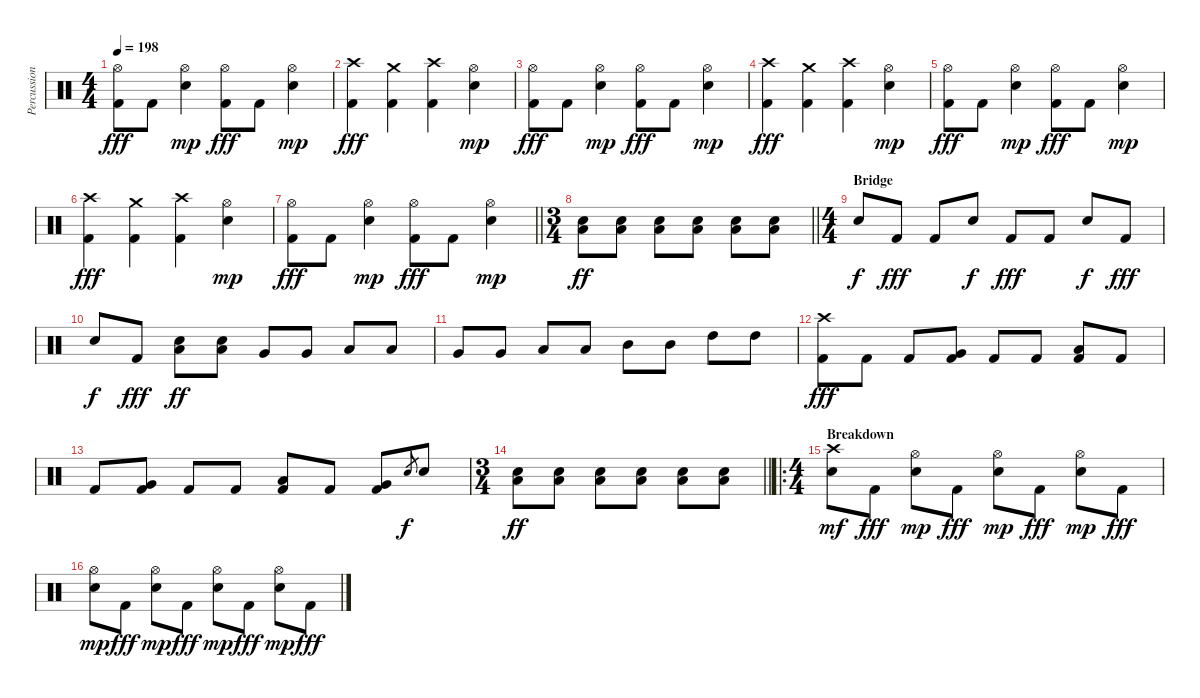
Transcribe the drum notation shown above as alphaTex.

\track ("Percussion" "Percussion") {instrument percussion}
\staff {score}
\articulation defaults
\ts (4 4)
\tempo 198
\clef neutral
\ks c
("Hi-Hat (open)" "Kick (hit) 2").8{dy fff} "Kick (hit) 2".8 ("Hi-Hat (open)" "Snare (hit) 2").4{dy mp} ("Hi-Hat (open)" "Kick (hit) 2").8{dy fff} "Kick (hit) 2".8 ("Hi-Hat (open)" "Snare (hit) 2").4{dy mp} |
("Crash high (hit)" "Kick (hit) 2").4{dy fff} ("Crash medium (hit)" "Kick (hit) 2").4 ("Crash high (hit)" "Kick (hit) 2").4 ("Hi-Hat (open)" "Snare (hit) 2").4{dy mp} |
("Hi-Hat (open)" "Kick (hit) 2").8{dy fff} "Kick (hit) 2".8 ("Hi-Hat (open)" "Snare (hit) 2").4{dy mp} ("Hi-Hat (open)" "Kick (hit) 2").8{dy fff} "Kick (hit) 2".8 ("Hi-Hat (open)" "Snare (hit) 2").4{dy mp} |
("Crash high (hit)" "Kick (hit) 2").4{dy fff} ("Crash medium (hit)" "Kick (hit) 2").4 ("Crash high (hit)" "Kick (hit) 2").4 ("Hi-Hat (open)" "Snare (hit) 2").4{dy mp} |
("Hi-Hat (open)" "Kick (hit) 2").8{dy fff} "Kick (hit) 2".8 ("Hi-Hat (open)" "Snare (hit) 2").4{dy mp} ("Hi-Hat (open)" "Kick (hit) 2").8{dy fff} "Kick (hit) 2".8 ("Hi-Hat (open)" "Snare (hit) 2").4{dy mp} |
("Crash high (hit)" "Kick (hit) 2").4{dy fff} ("Crash medium (hit)" "Kick (hit) 2").4 ("Crash high (hit)" "Kick (hit) 2").4 ("Hi-Hat (open)" "Snare (hit) 2").4{dy mp} |
\barLineRight lightlight
("Hi-Hat (open)" "Kick (hit) 2").8{dy fff} "Kick (hit) 2".8 ("Hi-Hat (open)" "Snare (hit) 2").4{dy mp} ("Hi-Hat (open)" "Kick (hit) 2").8{dy fff} "Kick (hit) 2".8 ("Hi-Hat (open)" "Snare (hit) 2").4{dy mp} |
\ts (3 4)
\barLineRight lightlight
("Low Floor Tom (hit)" "Snare (hit) 2").8{dy ff} ("Low Floor Tom (hit)" "Snare (hit) 2").8 ("Low Floor Tom (hit)" "Snare (hit) 2").8 ("Low Floor Tom (hit)" "Snare (hit) 2").8 ("Low Floor Tom (hit)" "Snare (hit) 2").8 ("Low Floor Tom (hit)" "Snare (hit) 2").8 |
\ts (4 4)
\section ("" "Bridge")
"Snare (hit) 2".8{dy f} "Kick (hit) 2".8{dy fff} "Kick (hit) 2".8 "Snare (hit) 2".8{dy f} "Kick (hit) 2".8{dy fff} "Kick (hit) 2".8 "Snare (hit) 2".8{dy f} "Kick (hit) 2".8{dy fff} |
"Snare (hit) 2".8{dy f} "Kick (hit) 2".8{dy fff} ("Low Floor Tom (hit)" "Snare (hit) 2").8{dy ff} ("Low Floor Tom (hit)" "Snare (hit) 2").8 "Very Low Tom (hit)".8 "Very Low Tom (hit)".8 "Low Tom (hit)".8 "Low Tom (hit)".8 |
"Very Low Tom (hit)".8 "Very Low Tom (hit)".8 "Low Tom (hit)".8 "Low Tom (hit)".8 "Mid Tom (hit)".8 "Mid Tom (hit)".8 "High Tom (hit)".8 "High Tom (hit)".8 |
("Crash high (hit)" "Kick (hit) 2").8{dy fff} "Kick (hit) 2".8 "Kick (hit) 2".8 ("Very Low Tom (hit)" "Kick (hit) 2").8 "Kick (hit) 2".8 "Kick (hit) 2".8 ("Low Floor Tom (hit)" "Kick (hit) 2").8 "Kick (hit) 2".8 |
"Kick (hit) 2".8 ("Very Low Tom (hit)" "Kick (hit) 2").8 "Kick (hit) 2".8 "Kick (hit) 2".8 ("Low Floor Tom (hit)" "Kick (hit) 2").8 "Kick (hit) 2".8 ("Very Low Tom (hit)" "Kick (hit) 2").8 "Snare (hit) 2".8{gr dy f} "Snare (hit) 2".8 |
\ts (3 4)
\barLineRight lightlight
("Low Floor Tom (hit)" "Snare (hit) 2").8{dy ff} ("Low Floor Tom (hit)" "Snare (hit) 2").8 ("Low Floor Tom (hit)" "Snare (hit) 2").8 ("Low Floor Tom (hit)" "Snare (hit) 2").8 ("Low Floor Tom (hit)" "Snare (hit) 2").8 ("Low Floor Tom (hit)" "Snare (hit) 2").8 |
\ro
\ts (4 4)
\section ("" "Breakdown")
("Crash high (hit)" "Snare (hit) 2").8{dy mf} "Kick (hit) 2".8{dy fff} ("Hi-Hat (open)" "Snare (hit) 2").8{dy mp} "Kick (hit) 2".8{dy fff} ("Hi-Hat (open)" "Snare (hit) 2").8{dy mp} "Kick (hit) 2".8{dy fff} ("Hi-Hat (open)" "Snare (hit) 2").8{dy mp} "Kick (hit) 2".8{dy fff} |
("Hi-Hat (open)" "Snare (hit) 2").8{dy mp} "Kick (hit) 2".8{dy fff} ("Hi-Hat (open)" "Snare (hit) 2").8{dy mp} "Kick (hit) 2".8{dy fff} ("Hi-Hat (open)" "Snare (hit) 2").8{dy mp} "Kick (hit) 2".8{dy fff} ("Hi-Hat (open)" "Snare (hit) 2").8{dy mp} "Kick (hit) 2".8{dy fff}
